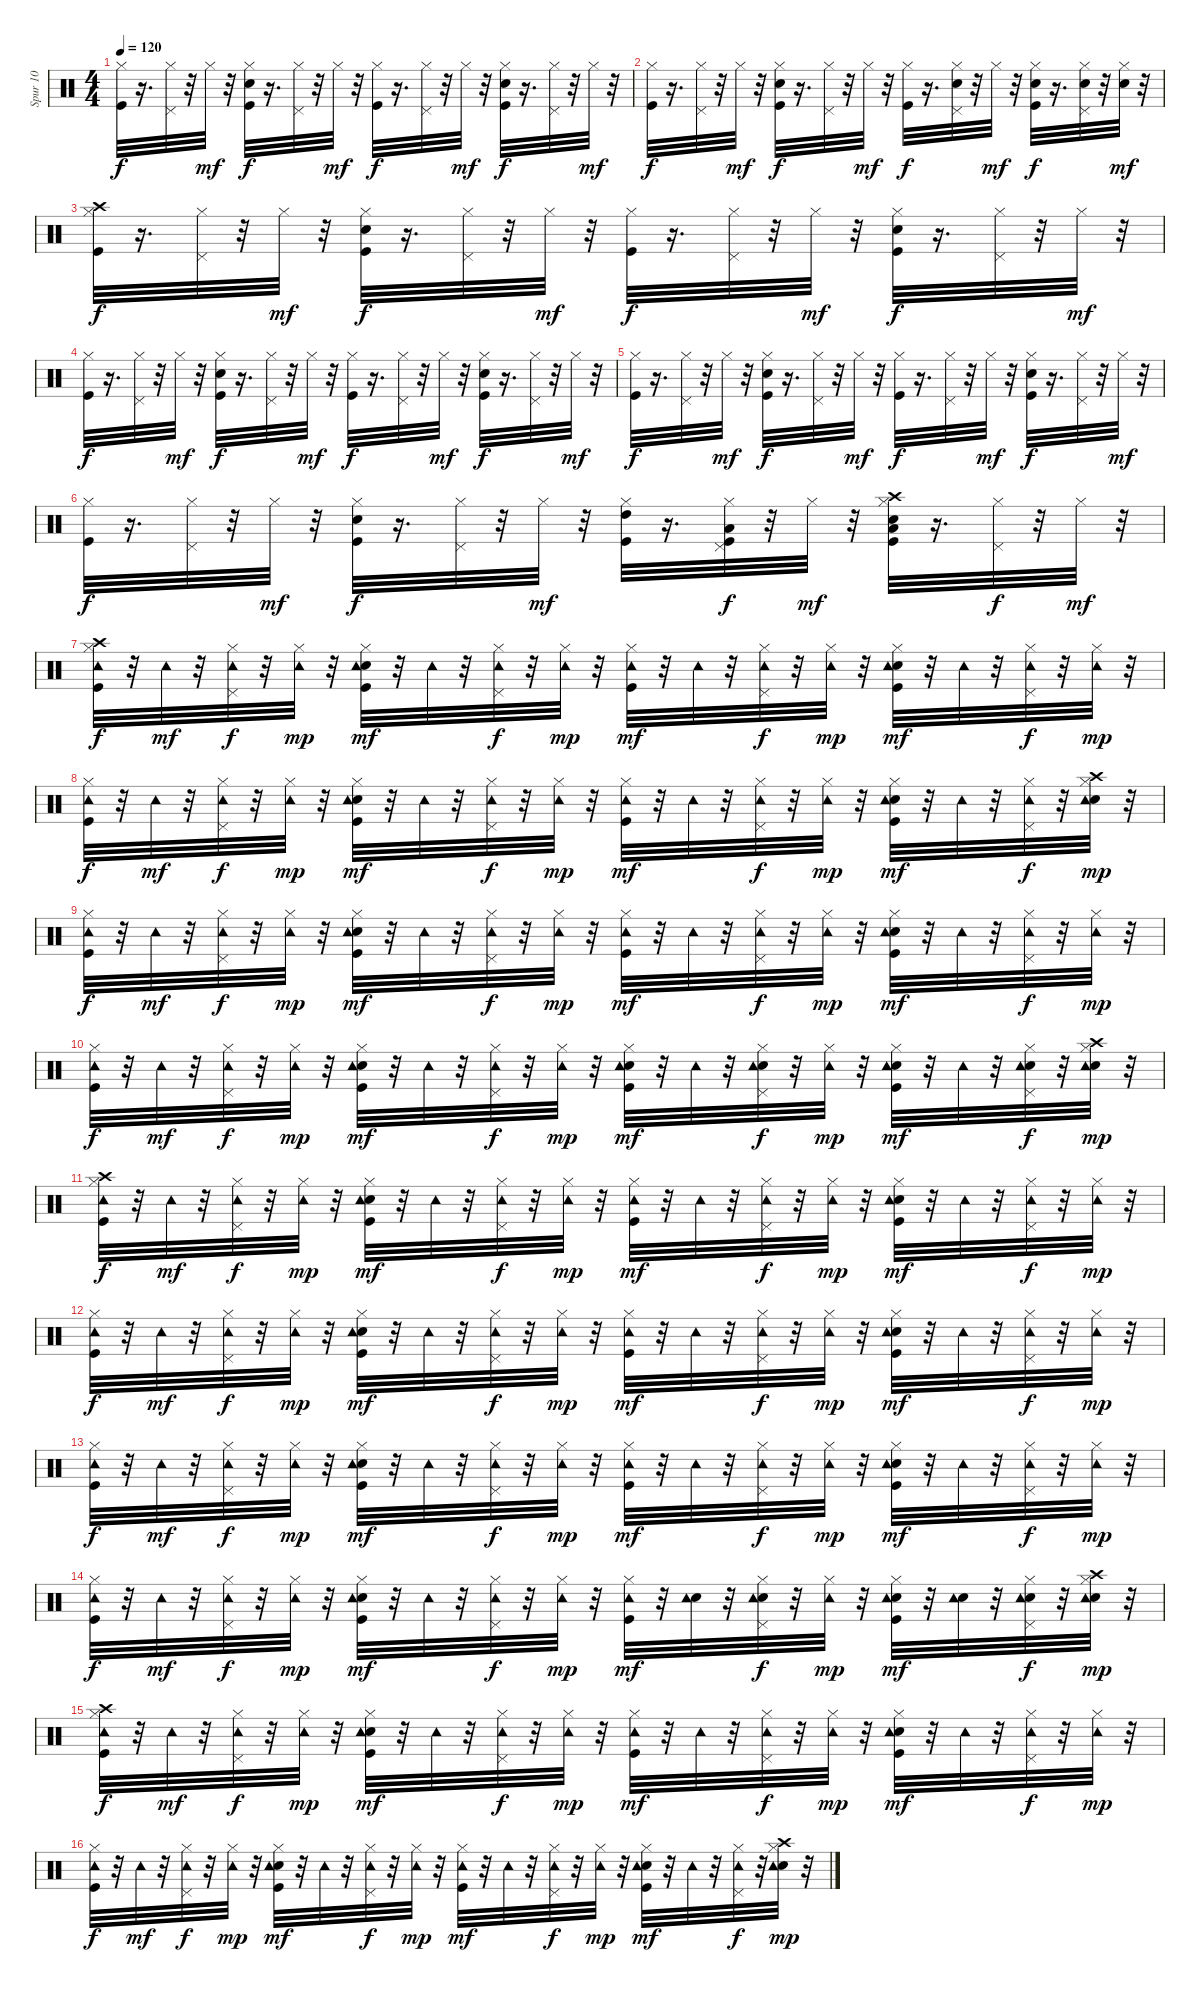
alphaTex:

\track ("Spur 10" "Spur 10") {instrument percussion}
\staff {score}
\articulation defaults
\ts (4 4)
\tempo 120
\clef neutral
\ks c
("Kick (hit)" "Hi-Hat (closed)").32{dy f} r.16{d} ("Hi-Hat (closed)" "Pedal Hi-Hat (hit)").32 r.32 "Hi-Hat (closed)".32{dy mf} r.32 ("Kick (hit)" "Snare (hit) 2" "Hi-Hat (closed)").32{dy f} r.16{d} ("Hi-Hat (closed)" "Pedal Hi-Hat (hit)").32 r.32 "Hi-Hat (closed)".32{dy mf} r.32 ("Kick (hit)" "Hi-Hat (closed)").32{dy f} r.16{d} ("Hi-Hat (closed)" "Pedal Hi-Hat (hit)").32 r.32 "Hi-Hat (closed)".32{dy mf} r.32 ("Kick (hit)" "Snare (hit) 2" "Hi-Hat (closed)").32{dy f} r.16{d} ("Hi-Hat (closed)" "Pedal Hi-Hat (hit)").32 r.32 "Hi-Hat (closed)".32{dy mf} r.32 |
("Kick (hit)" "Hi-Hat (closed)").32{dy f} r.16{d} ("Hi-Hat (closed)" "Pedal Hi-Hat (hit)").32 r.32 "Hi-Hat (closed)".32{dy mf} r.32 ("Kick (hit)" "Snare (hit) 2" "Hi-Hat (closed)").32{dy f} r.16{d} ("Hi-Hat (closed)" "Pedal Hi-Hat (hit)").32 r.32 "Hi-Hat (closed)".32{dy mf} r.32 ("Kick (hit)" "Hi-Hat (closed)").32{dy f} r.16{d} ("Snare (hit) 2" "Hi-Hat (closed)" "Pedal Hi-Hat (hit)").32 r.32 "Hi-Hat (closed)".32{dy mf} r.32 ("Kick (hit)" "Snare (hit) 2" "Hi-Hat (closed)").32{dy f} r.16{d} ("Snare (hit) 2" "Hi-Hat (closed)" "Pedal Hi-Hat (hit)").32 r.32 ("Snare (hit) 2" "Hi-Hat (closed)").32{dy mf} r.32 |
("Kick (hit)" "Hi-Hat (closed)" "Crash high (hit)").32{dy f} r.16{d} ("Hi-Hat (closed)" "Pedal Hi-Hat (hit)").32 r.32 "Hi-Hat (closed)".32{dy mf} r.32 ("Kick (hit)" "Snare (hit) 2" "Hi-Hat (closed)").32{dy f} r.16{d} ("Hi-Hat (closed)" "Pedal Hi-Hat (hit)").32 r.32 "Hi-Hat (closed)".32{dy mf} r.32 ("Kick (hit)" "Hi-Hat (closed)").32{dy f} r.16{d} ("Hi-Hat (closed)" "Pedal Hi-Hat (hit)").32 r.32 "Hi-Hat (closed)".32{dy mf} r.32 ("Kick (hit)" "Snare (hit) 2" "Hi-Hat (closed)").32{dy f} r.16{d} ("Hi-Hat (closed)" "Pedal Hi-Hat (hit)").32 r.32 "Hi-Hat (closed)".32{dy mf} r.32 |
("Kick (hit)" "Hi-Hat (closed)").32{dy f} r.16{d} ("Hi-Hat (closed)" "Pedal Hi-Hat (hit)").32 r.32 "Hi-Hat (closed)".32{dy mf} r.32 ("Kick (hit)" "Snare (hit) 2" "Hi-Hat (closed)").32{dy f} r.16{d} ("Hi-Hat (closed)" "Pedal Hi-Hat (hit)").32 r.32 "Hi-Hat (closed)".32{dy mf} r.32 ("Kick (hit)" "Hi-Hat (closed)").32{dy f} r.16{d} ("Hi-Hat (closed)" "Pedal Hi-Hat (hit)").32 r.32 "Hi-Hat (closed)".32{dy mf} r.32 ("Kick (hit)" "Snare (hit) 2" "Hi-Hat (closed)").32{dy f} r.16{d} ("Hi-Hat (closed)" "Pedal Hi-Hat (hit)").32 r.32 "Hi-Hat (closed)".32{dy mf} r.32 |
("Kick (hit)" "Hi-Hat (closed)").32{dy f} r.16{d} ("Hi-Hat (closed)" "Pedal Hi-Hat (hit)").32 r.32 "Hi-Hat (closed)".32{dy mf} r.32 ("Kick (hit)" "Snare (hit) 2" "Hi-Hat (closed)").32{dy f} r.16{d} ("Hi-Hat (closed)" "Pedal Hi-Hat (hit)").32 r.32 "Hi-Hat (closed)".32{dy mf} r.32 ("Kick (hit)" "Hi-Hat (closed)").32{dy f} r.16{d} ("Hi-Hat (closed)" "Pedal Hi-Hat (hit)").32 r.32 "Hi-Hat (closed)".32{dy mf} r.32 ("Kick (hit)" "Snare (hit) 2" "Hi-Hat (closed)").32{dy f} r.16{d} ("Hi-Hat (closed)" "Pedal Hi-Hat (hit)").32 r.32 "Hi-Hat (closed)".32{dy mf} r.32 |
("Kick (hit)" "Hi-Hat (closed)").32{dy f} r.16{d} ("Hi-Hat (closed)" "Pedal Hi-Hat (hit)").32 r.32 "Hi-Hat (closed)".32{dy mf} r.32 ("Kick (hit)" "Snare (hit) 2" "Hi-Hat (closed)").32{dy f} r.16{d} ("Hi-Hat (closed)" "Pedal Hi-Hat (hit)").32 r.32 "Hi-Hat (closed)".32{dy mf} r.32 ("Kick (hit)" "Hi-Hat (closed)" "High Tom (hit)").32 r.16{d} ("Kick (hit)" "Hi-Hat (closed)" "Pedal Hi-Hat (hit)" "Low Tom (hit)").32{dy f} r.32 "Hi-Hat (closed)".32{dy mf} r.32 ("Kick (hit)" "Electric Snare (hit)" "Hi-Hat (closed)" "Crash high (hit)" "Low Floor Tom (hit)").32 r.16{d} ("Hi-Hat (closed)" "Pedal Hi-Hat (hit)").32{dy f} r.32 "Hi-Hat (closed)".32{dy mf} r.32 |
("Kick (hit)" "Hi-Hat (closed)" "Crash high (hit)" "Tambourine (hit)").32{dy f} r.32 "Tambourine (hit)".32{dy mf} r.32 ("Hi-Hat (closed)" "Pedal Hi-Hat (hit)" "Tambourine (hit)").32{dy f} r.32 ("Hi-Hat (closed)" "Tambourine (hit)").32{dy mp} r.32 ("Kick (hit)" "Snare (hit) 2" "Hi-Hat (closed)" "Tambourine (hit)").32{dy mf} r.32 "Tambourine (hit)".32 r.32 ("Hi-Hat (closed)" "Pedal Hi-Hat (hit)" "Tambourine (hit)").32{dy f} r.32 ("Hi-Hat (closed)" "Tambourine (hit)").32{dy mp} r.32 ("Kick (hit)" "Hi-Hat (closed)" "Tambourine (hit)").32{dy mf} r.32 "Tambourine (hit)".32 r.32 ("Hi-Hat (closed)" "Pedal Hi-Hat (hit)" "Tambourine (hit)").32{dy f} r.32 ("Hi-Hat (closed)" "Tambourine (hit)").32{dy mp} r.32 ("Kick (hit)" "Snare (hit) 2" "Hi-Hat (closed)" "Tambourine (hit)").32{dy mf} r.32 "Tambourine (hit)".32 r.32 ("Hi-Hat (closed)" "Pedal Hi-Hat (hit)" "Tambourine (hit)").32{dy f} r.32 ("Hi-Hat (closed)" "Tambourine (hit)").32{dy mp} r.32 |
("Kick (hit)" "Hi-Hat (closed)" "Tambourine (hit)").32{dy f} r.32 "Tambourine (hit)".32{dy mf} r.32 ("Hi-Hat (closed)" "Pedal Hi-Hat (hit)" "Tambourine (hit)").32{dy f} r.32 ("Hi-Hat (closed)" "Tambourine (hit)").32{dy mp} r.32 ("Kick (hit)" "Snare (hit) 2" "Hi-Hat (closed)" "Tambourine (hit)").32{dy mf} r.32 "Tambourine (hit)".32 r.32 ("Hi-Hat (closed)" "Pedal Hi-Hat (hit)" "Tambourine (hit)").32{dy f} r.32 ("Hi-Hat (closed)" "Tambourine (hit)").32{dy mp} r.32 ("Kick (hit)" "Hi-Hat (closed)" "Tambourine (hit)").32{dy mf} r.32 "Tambourine (hit)".32 r.32 ("Hi-Hat (closed)" "Pedal Hi-Hat (hit)" "Tambourine (hit)").32{dy f} r.32 ("Hi-Hat (closed)" "Tambourine (hit)").32{dy mp} r.32 ("Kick (hit)" "Snare (hit) 2" "Hi-Hat (closed)" "Tambourine (hit)").32{dy mf} r.32 "Tambourine (hit)".32 r.32 ("Hi-Hat (closed)" "Pedal Hi-Hat (hit)" "Tambourine (hit)").32{dy f} r.32 ("Snare (hit) 2" "Hi-Hat (closed)" "Crash high (hit)" "Tambourine (hit)").32{dy mp} r.32 |
("Kick (hit)" "Hi-Hat (closed)" "Tambourine (hit)").32{dy f} r.32 "Tambourine (hit)".32{dy mf} r.32 ("Hi-Hat (closed)" "Pedal Hi-Hat (hit)" "Tambourine (hit)").32{dy f} r.32 ("Hi-Hat (closed)" "Tambourine (hit)").32{dy mp} r.32 ("Kick (hit)" "Snare (hit) 2" "Hi-Hat (closed)" "Tambourine (hit)").32{dy mf} r.32 "Tambourine (hit)".32 r.32 ("Hi-Hat (closed)" "Pedal Hi-Hat (hit)" "Tambourine (hit)").32{dy f} r.32 ("Hi-Hat (closed)" "Tambourine (hit)").32{dy mp} r.32 ("Kick (hit)" "Hi-Hat (closed)" "Tambourine (hit)").32{dy mf} r.32 "Tambourine (hit)".32 r.32 ("Hi-Hat (closed)" "Pedal Hi-Hat (hit)" "Tambourine (hit)").32{dy f} r.32 ("Hi-Hat (closed)" "Tambourine (hit)").32{dy mp} r.32 ("Kick (hit)" "Snare (hit) 2" "Hi-Hat (closed)" "Tambourine (hit)").32{dy mf} r.32 "Tambourine (hit)".32 r.32 ("Hi-Hat (closed)" "Pedal Hi-Hat (hit)" "Tambourine (hit)").32{dy f} r.32 ("Hi-Hat (closed)" "Tambourine (hit)").32{dy mp} r.32 |
("Kick (hit)" "Hi-Hat (closed)" "Tambourine (hit)").32{dy f} r.32 "Tambourine (hit)".32{dy mf} r.32 ("Hi-Hat (closed)" "Pedal Hi-Hat (hit)" "Tambourine (hit)").32{dy f} r.32 ("Hi-Hat (closed)" "Tambourine (hit)").32{dy mp} r.32 ("Kick (hit)" "Snare (hit) 2" "Hi-Hat (closed)" "Tambourine (hit)").32{dy mf} r.32 "Tambourine (hit)".32 r.32 ("Hi-Hat (closed)" "Pedal Hi-Hat (hit)" "Tambourine (hit)").32{dy f} r.32 ("Hi-Hat (closed)" "Tambourine (hit)").32{dy mp} r.32 ("Kick (hit)" "Snare (hit) 2" "Hi-Hat (closed)" "Tambourine (hit)").32{dy mf} r.32 "Tambourine (hit)".32 r.32 ("Snare (hit) 2" "Hi-Hat (closed)" "Pedal Hi-Hat (hit)" "Tambourine (hit)").32{dy f} r.32 ("Hi-Hat (closed)" "Tambourine (hit)").32{dy mp} r.32 ("Kick (hit)" "Snare (hit) 2" "Hi-Hat (closed)" "Tambourine (hit)").32{dy mf} r.32 "Tambourine (hit)".32 r.32 ("Snare (hit) 2" "Hi-Hat (closed)" "Pedal Hi-Hat (hit)" "Tambourine (hit)").32{dy f} r.32 ("Snare (hit) 2" "Hi-Hat (closed)" "Crash high (hit)" "Tambourine (hit)").32{dy mp} r.32 |
("Kick (hit)" "Hi-Hat (closed)" "Crash high (hit)" "Tambourine (hit)").32{dy f} r.32 "Tambourine (hit)".32{dy mf} r.32 ("Hi-Hat (closed)" "Pedal Hi-Hat (hit)" "Tambourine (hit)").32{dy f} r.32 ("Hi-Hat (closed)" "Tambourine (hit)").32{dy mp} r.32 ("Kick (hit)" "Snare (hit) 2" "Hi-Hat (closed)" "Tambourine (hit)").32{dy mf} r.32 "Tambourine (hit)".32 r.32 ("Hi-Hat (closed)" "Pedal Hi-Hat (hit)" "Tambourine (hit)").32{dy f} r.32 ("Hi-Hat (closed)" "Tambourine (hit)").32{dy mp} r.32 ("Kick (hit)" "Hi-Hat (closed)" "Tambourine (hit)").32{dy mf} r.32 "Tambourine (hit)".32 r.32 ("Hi-Hat (closed)" "Pedal Hi-Hat (hit)" "Tambourine (hit)").32{dy f} r.32 ("Hi-Hat (closed)" "Tambourine (hit)").32{dy mp} r.32 ("Kick (hit)" "Snare (hit) 2" "Hi-Hat (closed)" "Tambourine (hit)").32{dy mf} r.32 "Tambourine (hit)".32 r.32 ("Hi-Hat (closed)" "Pedal Hi-Hat (hit)" "Tambourine (hit)").32{dy f} r.32 ("Hi-Hat (closed)" "Tambourine (hit)").32{dy mp} r.32 |
("Kick (hit)" "Hi-Hat (closed)" "Tambourine (hit)").32{dy f} r.32 "Tambourine (hit)".32{dy mf} r.32 ("Hi-Hat (closed)" "Pedal Hi-Hat (hit)" "Tambourine (hit)").32{dy f} r.32 ("Hi-Hat (closed)" "Tambourine (hit)").32{dy mp} r.32 ("Kick (hit)" "Snare (hit) 2" "Hi-Hat (closed)" "Tambourine (hit)").32{dy mf} r.32 "Tambourine (hit)".32 r.32 ("Hi-Hat (closed)" "Pedal Hi-Hat (hit)" "Tambourine (hit)").32{dy f} r.32 ("Hi-Hat (closed)" "Tambourine (hit)").32{dy mp} r.32 ("Kick (hit)" "Hi-Hat (closed)" "Tambourine (hit)").32{dy mf} r.32 "Tambourine (hit)".32 r.32 ("Hi-Hat (closed)" "Pedal Hi-Hat (hit)" "Tambourine (hit)").32{dy f} r.32 ("Hi-Hat (closed)" "Tambourine (hit)").32{dy mp} r.32 ("Kick (hit)" "Snare (hit) 2" "Hi-Hat (closed)" "Tambourine (hit)").32{dy mf} r.32 "Tambourine (hit)".32 r.32 ("Hi-Hat (closed)" "Pedal Hi-Hat (hit)" "Tambourine (hit)").32{dy f} r.32 ("Hi-Hat (closed)" "Tambourine (hit)").32{dy mp} r.32 |
("Kick (hit)" "Hi-Hat (closed)" "Tambourine (hit)").32{dy f} r.32 "Tambourine (hit)".32{dy mf} r.32 ("Hi-Hat (closed)" "Pedal Hi-Hat (hit)" "Tambourine (hit)").32{dy f} r.32 ("Hi-Hat (closed)" "Tambourine (hit)").32{dy mp} r.32 ("Kick (hit)" "Snare (hit) 2" "Hi-Hat (closed)" "Tambourine (hit)").32{dy mf} r.32 "Tambourine (hit)".32 r.32 ("Hi-Hat (closed)" "Pedal Hi-Hat (hit)" "Tambourine (hit)").32{dy f} r.32 ("Hi-Hat (closed)" "Tambourine (hit)").32{dy mp} r.32 ("Kick (hit)" "Hi-Hat (closed)" "Tambourine (hit)").32{dy mf} r.32 "Tambourine (hit)".32 r.32 ("Hi-Hat (closed)" "Pedal Hi-Hat (hit)" "Tambourine (hit)").32{dy f} r.32 ("Hi-Hat (closed)" "Tambourine (hit)").32{dy mp} r.32 ("Kick (hit)" "Snare (hit) 2" "Hi-Hat (closed)" "Tambourine (hit)").32{dy mf} r.32 "Tambourine (hit)".32 r.32 ("Hi-Hat (closed)" "Pedal Hi-Hat (hit)" "Tambourine (hit)").32{dy f} r.32 ("Hi-Hat (closed)" "Tambourine (hit)").32{dy mp} r.32 |
("Kick (hit)" "Hi-Hat (closed)" "Tambourine (hit)").32{dy f} r.32 "Tambourine (hit)".32{dy mf} r.32 ("Hi-Hat (closed)" "Pedal Hi-Hat (hit)" "Tambourine (hit)").32{dy f} r.32 ("Hi-Hat (closed)" "Tambourine (hit)").32{dy mp} r.32 ("Kick (hit)" "Snare (hit) 2" "Hi-Hat (closed)" "Tambourine (hit)").32{dy mf} r.32 "Tambourine (hit)".32 r.32 ("Hi-Hat (closed)" "Pedal Hi-Hat (hit)" "Tambourine (hit)").32{dy f} r.32 ("Hi-Hat (closed)" "Tambourine (hit)").32{dy mp} r.32 ("Kick (hit)" "Hi-Hat (closed)" "Tambourine (hit)").32{dy mf} r.32 ("Snare (hit) 2" "Tambourine (hit)").32 r.32 ("Snare (hit) 2" "Hi-Hat (closed)" "Pedal Hi-Hat (hit)" "Tambourine (hit)").32{dy f} r.32 ("Hi-Hat (closed)" "Tambourine (hit)").32{dy mp} r.32 ("Kick (hit)" "Snare (hit) 2" "Hi-Hat (closed)" "Tambourine (hit)").32{dy mf} r.32 ("Snare (hit) 2" "Tambourine (hit)").32 r.32 ("Snare (hit) 2" "Hi-Hat (closed)" "Pedal Hi-Hat (hit)" "Tambourine (hit)").32{dy f} r.32 ("Snare (hit) 2" "Hi-Hat (closed)" "Crash high (hit)" "Tambourine (hit)").32{dy mp} r.32 |
("Kick (hit)" "Hi-Hat (closed)" "Crash high (hit)" "Tambourine (hit)").32{dy f} r.32 "Tambourine (hit)".32{dy mf} r.32 ("Hi-Hat (closed)" "Pedal Hi-Hat (hit)" "Tambourine (hit)").32{dy f} r.32 ("Hi-Hat (closed)" "Tambourine (hit)").32{dy mp} r.32 ("Kick (hit)" "Snare (hit) 2" "Hi-Hat (closed)" "Tambourine (hit)").32{dy mf} r.32 "Tambourine (hit)".32 r.32 ("Hi-Hat (closed)" "Pedal Hi-Hat (hit)" "Tambourine (hit)").32{dy f} r.32 ("Hi-Hat (closed)" "Tambourine (hit)").32{dy mp} r.32 ("Kick (hit)" "Hi-Hat (closed)" "Tambourine (hit)").32{dy mf} r.32 "Tambourine (hit)".32 r.32 ("Hi-Hat (closed)" "Pedal Hi-Hat (hit)" "Tambourine (hit)").32{dy f} r.32 ("Hi-Hat (closed)" "Tambourine (hit)").32{dy mp} r.32 ("Kick (hit)" "Snare (hit) 2" "Hi-Hat (closed)" "Tambourine (hit)").32{dy mf} r.32 "Tambourine (hit)".32 r.32 ("Hi-Hat (closed)" "Pedal Hi-Hat (hit)" "Tambourine (hit)").32{dy f} r.32 ("Hi-Hat (closed)" "Tambourine (hit)").32{dy mp} r.32 |
("Kick (hit)" "Hi-Hat (closed)" "Tambourine (hit)").32{dy f} r.32 "Tambourine (hit)".32{dy mf} r.32 ("Hi-Hat (closed)" "Pedal Hi-Hat (hit)" "Tambourine (hit)").32{dy f} r.32 ("Hi-Hat (closed)" "Tambourine (hit)").32{dy mp} r.32 ("Kick (hit)" "Snare (hit) 2" "Hi-Hat (closed)" "Tambourine (hit)").32{dy mf} r.32 "Tambourine (hit)".32 r.32 ("Hi-Hat (closed)" "Pedal Hi-Hat (hit)" "Tambourine (hit)").32{dy f} r.32 ("Hi-Hat (closed)" "Tambourine (hit)").32{dy mp} r.32 ("Kick (hit)" "Hi-Hat (closed)" "Tambourine (hit)").32{dy mf} r.32 "Tambourine (hit)".32 r.32 ("Hi-Hat (closed)" "Pedal Hi-Hat (hit)" "Tambourine (hit)").32{dy f} r.32 ("Hi-Hat (closed)" "Tambourine (hit)").32{dy mp} r.32 ("Kick (hit)" "Snare (hit) 2" "Hi-Hat (closed)" "Tambourine (hit)").32{dy mf} r.32 "Tambourine (hit)".32 r.32 ("Hi-Hat (closed)" "Pedal Hi-Hat (hit)" "Tambourine (hit)").32{dy f} r.32 ("Snare (hit) 2" "Hi-Hat (closed)" "Crash high (hit)" "Tambourine (hit)").32{dy mp} r.32
